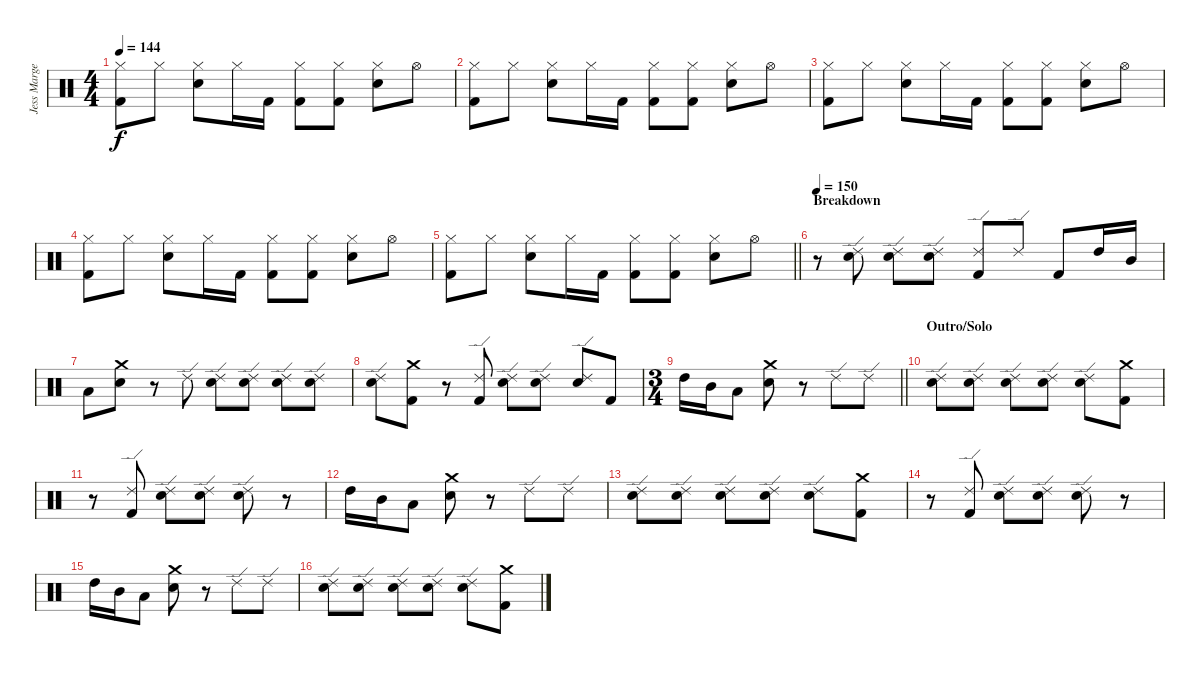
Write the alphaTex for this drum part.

\track ("Jess Margera" "Jess Marge") {instrument percussion}
\staff {score}
\articulation defaults
\ts (4 4)
\tempo 144
\clef neutral
\ks c
("Hi-Hat (closed)" "Kick (hit) 2").8{dy f} "Hi-Hat (closed)".8 ("Hi-Hat (closed)" "Electric Snare (hit)").8 "Hi-Hat (closed)".16 "Kick (hit) 2".16 ("Hi-Hat (closed)" "Kick (hit) 2").8 ("Hi-Hat (closed)" "Kick (hit) 2").8 ("Hi-Hat (closed)" "Electric Snare (hit)").8 "Hi-Hat (open)".8 |
("Hi-Hat (closed)" "Kick (hit) 2").8 "Hi-Hat (closed)".8 ("Hi-Hat (closed)" "Electric Snare (hit)").8 "Hi-Hat (closed)".16 "Kick (hit) 2".16 ("Hi-Hat (closed)" "Kick (hit) 2").8 ("Hi-Hat (closed)" "Kick (hit) 2").8 ("Hi-Hat (closed)" "Electric Snare (hit)").8 "Hi-Hat (open)".8 |
("Hi-Hat (closed)" "Kick (hit) 2").8 "Hi-Hat (closed)".8 ("Hi-Hat (closed)" "Electric Snare (hit)").8 "Hi-Hat (closed)".16 "Kick (hit) 2".16 ("Hi-Hat (closed)" "Kick (hit) 2").8 ("Hi-Hat (closed)" "Kick (hit) 2").8 ("Hi-Hat (closed)" "Electric Snare (hit)").8 "Hi-Hat (open)".8 |
("Hi-Hat (closed)" "Kick (hit) 2").8 "Hi-Hat (closed)".8 ("Hi-Hat (closed)" "Electric Snare (hit)").8 "Hi-Hat (closed)".16 "Kick (hit) 2".16 ("Hi-Hat (closed)" "Kick (hit) 2").8 ("Hi-Hat (closed)" "Kick (hit) 2").8 ("Hi-Hat (closed)" "Electric Snare (hit)").8 "Hi-Hat (open)".8 |
\barLineRight lightlight
("Hi-Hat (closed)" "Kick (hit) 2").8 "Hi-Hat (closed)".8 ("Hi-Hat (closed)" "Electric Snare (hit)").8 "Hi-Hat (closed)".16 "Kick (hit) 2".16 ("Hi-Hat (closed)" "Kick (hit) 2").8 ("Hi-Hat (closed)" "Kick (hit) 2").8 ("Hi-Hat (closed)" "Electric Snare (hit)").8 "Hi-Hat (open)".8 |
\section ("" "Breakdown")
\tempo 150
r.8 ("Ride (edge) 2" "Electric Snare (hit)").8 ("Ride (edge) 2" "Electric Snare (hit)").8 ("Ride (edge) 2" "Electric Snare (hit)").8 ("Ride (edge) 2" "Kick (hit) 2").8 "Ride (edge) 2".8 "Kick (hit) 2".8 "High Tom (hit)".16 "Mid Tom (hit)".16 |
"Low Tom (hit)".8 ("Crash medium (hit)" "Electric Snare (hit)").8 r.8 "Ride (edge) 2".8 ("Ride (edge) 2" "Electric Snare (hit)").8 ("Ride (edge) 2" "Electric Snare (hit)").8 ("Ride (edge) 2" "Electric Snare (hit)").8 ("Ride (edge) 2" "Electric Snare (hit)").8 |
("Ride (edge) 2" "Electric Snare (hit)").8 ("Crash medium (hit)" "Kick (hit) 2").8 r.8 ("Ride (edge) 2" "Kick (hit) 2").8 ("Ride (edge) 2" "Electric Snare (hit)").8 ("Ride (edge) 2" "Electric Snare (hit)").8 ("Ride (edge) 2" "Electric Snare (hit)").8 "Kick (hit) 2".8 |
\ts (3 4)
\barLineRight lightlight "High Tom (hit)".16 "Mid Tom (hit)".16 "Low Tom (hit)".8
("Crash medium (hit)" "Electric Snare (hit)").8 r.8 "Ride (edge) 2".8 "Ride (edge) 2".8 |
\section ("" "Outro/Solo")
("Ride (edge) 2" "Electric Snare (hit)").8 ("Ride (edge) 2" "Electric Snare (hit)").8 ("Ride (edge) 2" "Electric Snare (hit)").8 ("Ride (edge) 2" "Electric Snare (hit)").8 ("Ride (edge) 2" "Electric Snare (hit)").8 ("Crash medium (hit)" "Kick (hit) 2").8 |
r.8 ("Ride (edge) 2" "Kick (hit) 2").8 ("Ride (edge) 2" "Electric Snare (hit)").8 ("Ride (edge) 2" "Electric Snare (hit)").8 ("Ride (edge) 2" "Electric Snare (hit)").8 r.8 |
"High Tom (hit)".16 "Mid Tom (hit)".16 "Low Tom (hit)".8 ("Crash medium (hit)" "Electric Snare (hit)").8 r.8 "Ride (edge) 2".8 "Ride (edge) 2".8 |
("Ride (edge) 2" "Electric Snare (hit)").8 ("Ride (edge) 2" "Electric Snare (hit)").8 ("Ride (edge) 2" "Electric Snare (hit)").8 ("Ride (edge) 2" "Electric Snare (hit)").8 ("Ride (edge) 2" "Electric Snare (hit)").8 ("Crash medium (hit)" "Kick (hit) 2").8 |
r.8 ("Ride (edge) 2" "Kick (hit) 2").8 ("Ride (edge) 2" "Electric Snare (hit)").8 ("Ride (edge) 2" "Electric Snare (hit)").8 ("Ride (edge) 2" "Electric Snare (hit)").8 r.8 |
"High Tom (hit)".16 "Mid Tom (hit)".16 "Low Tom (hit)".8 ("Crash medium (hit)" "Electric Snare (hit)").8 r.8 "Ride (edge) 2".8 "Ride (edge) 2".8 |
("Ride (edge) 2" "Electric Snare (hit)").8 ("Ride (edge) 2" "Electric Snare (hit)").8 ("Ride (edge) 2" "Electric Snare (hit)").8 ("Ride (edge) 2" "Electric Snare (hit)").8 ("Ride (edge) 2" "Electric Snare (hit)").8 ("Crash medium (hit)" "Kick (hit) 2").8
